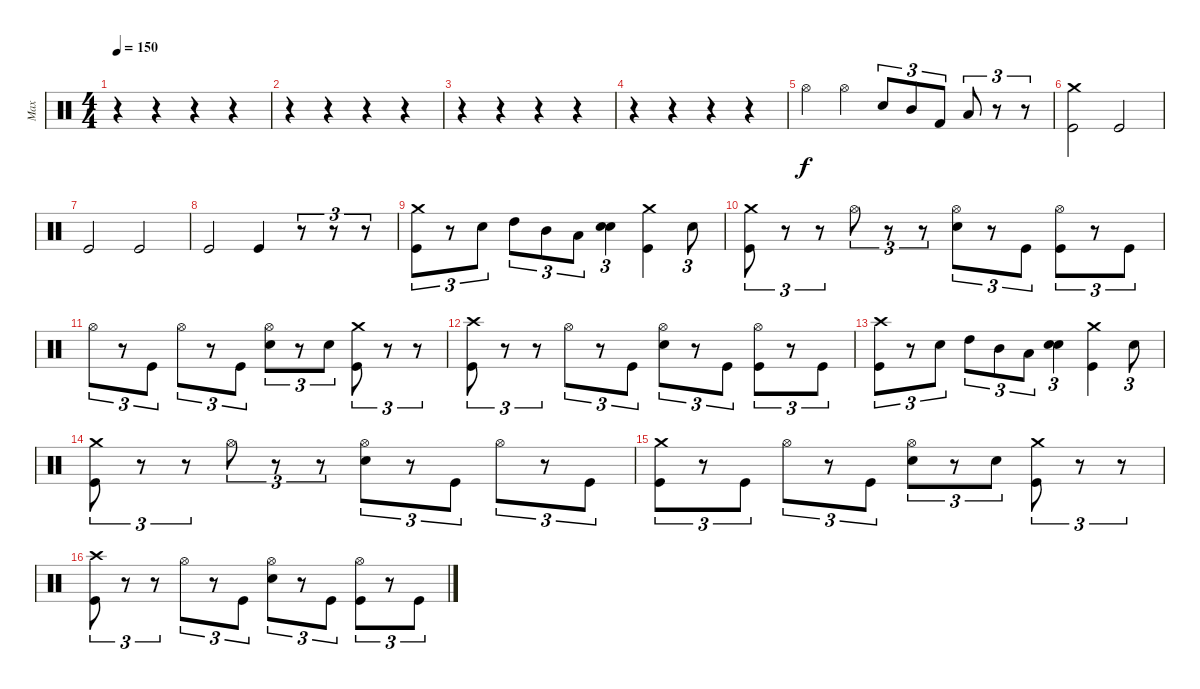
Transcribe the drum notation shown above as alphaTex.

\track ("Max" "Max") {instrument percussion}
\staff {score}
\articulation defaults
\ts (4 4)
\tempo 150
\clef neutral
\ks c
r.4{dy f} r.4 r.4 r.4 |
r.4 r.4 r.4 r.4 |
r.4 r.4 r.4 r.4 |
r.4 r.4 r.4 r.4 |
"Hi-Hat (open)".4 "Hi-Hat (open)".4 "Electric Snare (hit)".8{tu (3 2)} "Mid Tom (hit)".8{tu (3 2)} "Kick (hit) 2".8{tu (3 2)} "Low Tom (hit)".8{tu (3 2)} r.8{tu (3 2)} r.8{tu (3 2)} |
("Crash medium (hit)" "Kick (hit)").2 "Kick (hit)".2 |
"Kick (hit)".2 "Kick (hit)".2 |
"Kick (hit)".2 "Kick (hit)".4 r.8{tu (3 2)} r.8{tu (3 2)} r.8{tu (3 2)} |
("Crash medium (hit)" "Kick (hit)").8{tu (3 2)} r.8{tu (3 2)} "Electric Snare (hit)".8{tu (3 2)} "High Tom (hit)".8{tu (3 2)} "Mid Tom (hit)".8{tu (3 2)} "Low Tom (hit)".8{tu (3 2)} ("Electric Snare (hit)" "Electric Snare (hit)").4{tu (3 2) bd 480} ("Crash medium (hit)" "Kick (hit)").4 "Electric Snare (hit)".8{tu (3 2)} |
("Crash medium (hit)" "Kick (hit)").8{tu (3 2)} r.8{tu (3 2)} r.8{tu (3 2)} "Hi-Hat (open)".8{tu (3 2)} r.8{tu (3 2)} r.8{tu (3 2)} ("Hi-Hat (open)" "Electric Snare (hit)").8{tu (3 2)} r.8{tu (3 2)} "Kick (hit)".8{tu (3 2)} ("Hi-Hat (open)" "Kick (hit)").8{tu (3 2)} r.8{tu (3 2)} "Kick (hit)".8{tu (3 2)} |
"Hi-Hat (open)".8{tu (3 2)} r.8{tu (3 2)} "Kick (hit)".8{tu (3 2)} "Hi-Hat (open)".8{tu (3 2)} r.8{tu (3 2)} "Kick (hit)".8{tu (3 2)} ("Hi-Hat (open)" "Electric Snare (hit)").8{tu (3 2)} r.8{tu (3 2)} "Electric Snare (hit)".8{tu (3 2)} ("Crash medium (hit)" "Kick (hit)").8{tu (3 2)} r.8{tu (3 2)} r.8{tu (3 2)} |
("Crash high (hit)" "Kick (hit)").8{tu (3 2)} r.8{tu (3 2)} r.8{tu (3 2)} "Hi-Hat (open)".8{tu (3 2)} r.8{tu (3 2)} "Kick (hit)".8{tu (3 2)} ("Hi-Hat (open)" "Electric Snare (hit)").8{tu (3 2)} r.8{tu (3 2)} "Kick (hit)".8{tu (3 2)} ("Hi-Hat (open)" "Kick (hit)").8{tu (3 2)} r.8{tu (3 2)} "Kick (hit)".8{tu (3 2)} |
("Crash high (hit)" "Kick (hit)").8{tu (3 2)} r.8{tu (3 2)} "Electric Snare (hit)".8{tu (3 2)} "High Tom (hit)".8{tu (3 2)} "Mid Tom (hit)".8{tu (3 2)} "Low Tom (hit)".8{tu (3 2)} ("Electric Snare (hit)" "Electric Snare (hit)").4{tu (3 2) bd 480} ("Crash medium (hit)" "Kick (hit)").4 "Electric Snare (hit)".8{tu (3 2)} |
("Crash medium (hit)" "Kick (hit)").8{tu (3 2)} r.8{tu (3 2)} r.8{tu (3 2)} "Hi-Hat (open)".8{tu (3 2)} r.8{tu (3 2)} r.8{tu (3 2)} ("Hi-Hat (open)" "Electric Snare (hit)").8{tu (3 2)} r.8{tu (3 2)} "Kick (hit)".8{tu (3 2)} "Hi-Hat (open)".8{tu (3 2)} r.8{tu (3 2)} "Kick (hit)".8{tu (3 2)} |
("Crash medium (hit)" "Kick (hit)").8{tu (3 2)} r.8{tu (3 2)} "Kick (hit)".8{tu (3 2)} "Hi-Hat (open)".8{tu (3 2)} r.8{tu (3 2)} "Kick (hit)".8{tu (3 2)} ("Hi-Hat (open)" "Electric Snare (hit)").8{tu (3 2)} r.8{tu (3 2)} "Electric Snare (hit)".8{tu (3 2)} ("Crash medium (hit)" "Kick (hit)").8{tu (3 2)} r.8{tu (3 2)} r.8{tu (3 2)} |
("Crash high (hit)" "Kick (hit)").8{tu (3 2)} r.8{tu (3 2)} r.8{tu (3 2)} "Hi-Hat (open)".8{tu (3 2)} r.8{tu (3 2)} "Kick (hit)".8{tu (3 2)} ("Hi-Hat (open)" "Electric Snare (hit)").8{tu (3 2)} r.8{tu (3 2)} "Kick (hit)".8{tu (3 2)} ("Hi-Hat (open)" "Kick (hit)").8{tu (3 2)} r.8{tu (3 2)} "Kick (hit)".8{tu (3 2)}
